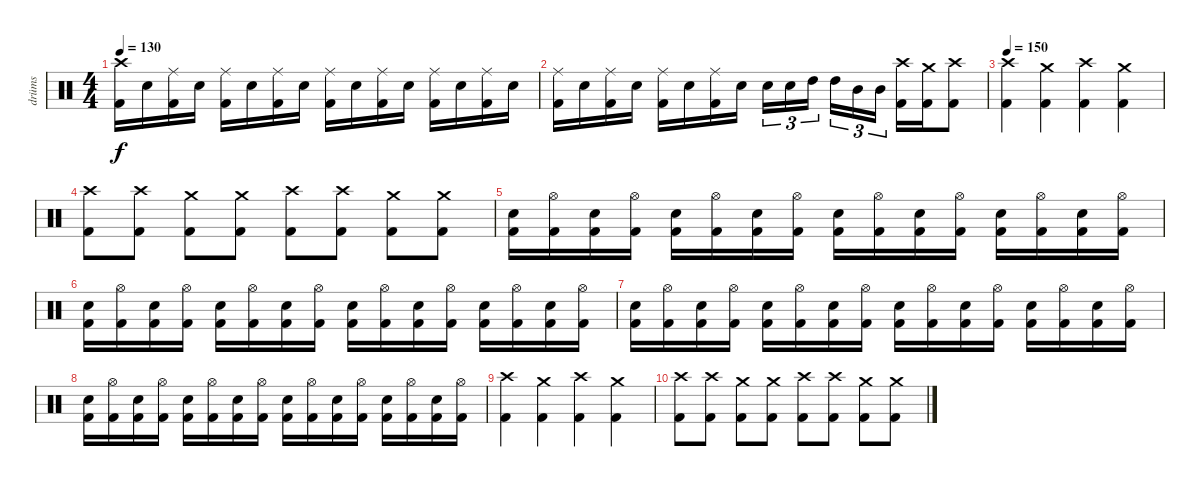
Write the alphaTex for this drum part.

\track ("drüms" "drüms") {instrument percussion}
\staff {score}
\articulation defaults
\ts (4 4)
\tempo 130
\clef neutral
\ks c
("Kick (hit) 2" "Crash high (hit)").16{dy f} "Electric Snare (hit)".16 ("Kick (hit) 2" "Ride (middle)").16 "Electric Snare (hit)".16 ("Kick (hit) 2" "Ride (middle)").16 "Electric Snare (hit)".16 ("Kick (hit) 2" "Ride (middle)").16 "Electric Snare (hit)".16 ("Kick (hit) 2" "Ride (middle)").16 "Electric Snare (hit)".16 ("Kick (hit) 2" "Ride (middle)").16 "Electric Snare (hit)".16 ("Kick (hit) 2" "Ride (middle)").16 "Electric Snare (hit)".16 ("Kick (hit) 2" "Ride (middle)").16 "Electric Snare (hit)".16 |
("Kick (hit) 2" "Ride (middle)").16 "Electric Snare (hit)".16 ("Kick (hit) 2" "Ride (middle)").16 "Electric Snare (hit)".16 ("Kick (hit) 2" "Ride (middle)").16 "Electric Snare (hit)".16 ("Kick (hit) 2" "Ride (middle)").16 "Electric Snare (hit)".16 "Electric Snare (hit)".16{tu (3 2)} "Electric Snare (hit)".16{tu (3 2)} "High Tom (hit)".16{tu (3 2)} "High Tom (hit)".16{tu (3 2)} "Mid Tom (hit)".16{tu (3 2)} "Mid Tom (hit)".16{tu (3 2)} ("Kick (hit) 2" "Crash high (hit)").16 ("Kick (hit) 2" "Crash medium (hit)").16 ("Kick (hit) 2" "Crash high (hit)").8 |
\tempo 150
("Crash high (hit)" "Kick (hit) 2").4 ("Crash medium (hit)" "Kick (hit) 2").4 ("Crash high (hit)" "Kick (hit) 2").4 ("Crash medium (hit)" "Kick (hit) 2").4 |
("Crash high (hit)" "Kick (hit) 2").8 ("Crash high (hit)" "Kick (hit) 2").8 ("Crash medium (hit)" "Kick (hit) 2").8 ("Crash medium (hit)" "Kick (hit) 2").8 ("Crash high (hit)" "Kick (hit) 2").8 ("Crash high (hit)" "Kick (hit) 2").8 ("Crash medium (hit)" "Kick (hit) 2").8 ("Crash medium (hit)" "Kick (hit) 2").8 |
("Electric Snare (hit)" "Kick (hit) 2").16 ("Hi-Hat (open)" "Kick (hit) 2").16 ("Electric Snare (hit)" "Kick (hit) 2").16 ("Hi-Hat (open)" "Kick (hit) 2").16 ("Electric Snare (hit)" "Kick (hit) 2").16 ("Hi-Hat (open)" "Kick (hit) 2").16 ("Electric Snare (hit)" "Kick (hit) 2").16 ("Hi-Hat (open)" "Kick (hit) 2").16 ("Electric Snare (hit)" "Kick (hit) 2").16 ("Hi-Hat (open)" "Kick (hit) 2").16 ("Electric Snare (hit)" "Kick (hit) 2").16 ("Hi-Hat (open)" "Kick (hit) 2").16 ("Electric Snare (hit)" "Kick (hit) 2").16 ("Hi-Hat (open)" "Kick (hit) 2").16 ("Electric Snare (hit)" "Kick (hit) 2").16 ("Hi-Hat (open)" "Kick (hit) 2").16 |
("Electric Snare (hit)" "Kick (hit) 2").16 ("Hi-Hat (open)" "Kick (hit) 2").16 ("Electric Snare (hit)" "Kick (hit) 2").16 ("Hi-Hat (open)" "Kick (hit) 2").16 ("Electric Snare (hit)" "Kick (hit) 2").16 ("Hi-Hat (open)" "Kick (hit) 2").16 ("Electric Snare (hit)" "Kick (hit) 2").16 ("Hi-Hat (open)" "Kick (hit) 2").16 ("Electric Snare (hit)" "Kick (hit) 2").16 ("Hi-Hat (open)" "Kick (hit) 2").16 ("Electric Snare (hit)" "Kick (hit) 2").16 ("Hi-Hat (open)" "Kick (hit) 2").16 ("Electric Snare (hit)" "Kick (hit) 2").16 ("Hi-Hat (open)" "Kick (hit) 2").16 ("Electric Snare (hit)" "Kick (hit) 2").16 ("Hi-Hat (open)" "Kick (hit) 2").16 |
("Electric Snare (hit)" "Kick (hit) 2").16 ("Hi-Hat (open)" "Kick (hit) 2").16 ("Electric Snare (hit)" "Kick (hit) 2").16 ("Hi-Hat (open)" "Kick (hit) 2").16 ("Electric Snare (hit)" "Kick (hit) 2").16 ("Hi-Hat (open)" "Kick (hit) 2").16 ("Electric Snare (hit)" "Kick (hit) 2").16 ("Hi-Hat (open)" "Kick (hit) 2").16 ("Electric Snare (hit)" "Kick (hit) 2").16 ("Hi-Hat (open)" "Kick (hit) 2").16 ("Electric Snare (hit)" "Kick (hit) 2").16 ("Hi-Hat (open)" "Kick (hit) 2").16 ("Electric Snare (hit)" "Kick (hit) 2").16 ("Hi-Hat (open)" "Kick (hit) 2").16 ("Electric Snare (hit)" "Kick (hit) 2").16 ("Hi-Hat (open)" "Kick (hit) 2").16 |
("Electric Snare (hit)" "Kick (hit) 2").16 ("Hi-Hat (open)" "Kick (hit) 2").16 ("Electric Snare (hit)" "Kick (hit) 2").16 ("Hi-Hat (open)" "Kick (hit) 2").16 ("Electric Snare (hit)" "Kick (hit) 2").16 ("Hi-Hat (open)" "Kick (hit) 2").16 ("Electric Snare (hit)" "Kick (hit) 2").16 ("Hi-Hat (open)" "Kick (hit) 2").16 ("Electric Snare (hit)" "Kick (hit) 2").16 ("Hi-Hat (open)" "Kick (hit) 2").16 ("Electric Snare (hit)" "Kick (hit) 2").16 ("Hi-Hat (open)" "Kick (hit) 2").16 ("Electric Snare (hit)" "Kick (hit) 2").16 ("Hi-Hat (open)" "Kick (hit) 2").16 ("Electric Snare (hit)" "Kick (hit) 2").16 ("Hi-Hat (open)" "Kick (hit) 2").16 |
("Crash high (hit)" "Kick (hit) 2").4 ("Crash medium (hit)" "Kick (hit) 2").4 ("Crash high (hit)" "Kick (hit) 2").4 ("Crash medium (hit)" "Kick (hit) 2").4 |
("Crash high (hit)" "Kick (hit) 2").8 ("Crash high (hit)" "Kick (hit) 2").8 ("Crash medium (hit)" "Kick (hit) 2").8 ("Crash medium (hit)" "Kick (hit) 2").8 ("Crash high (hit)" "Kick (hit) 2").8 ("Crash high (hit)" "Kick (hit) 2").8 ("Crash medium (hit)" "Kick (hit) 2").8 ("Crash medium (hit)" "Kick (hit) 2").8
